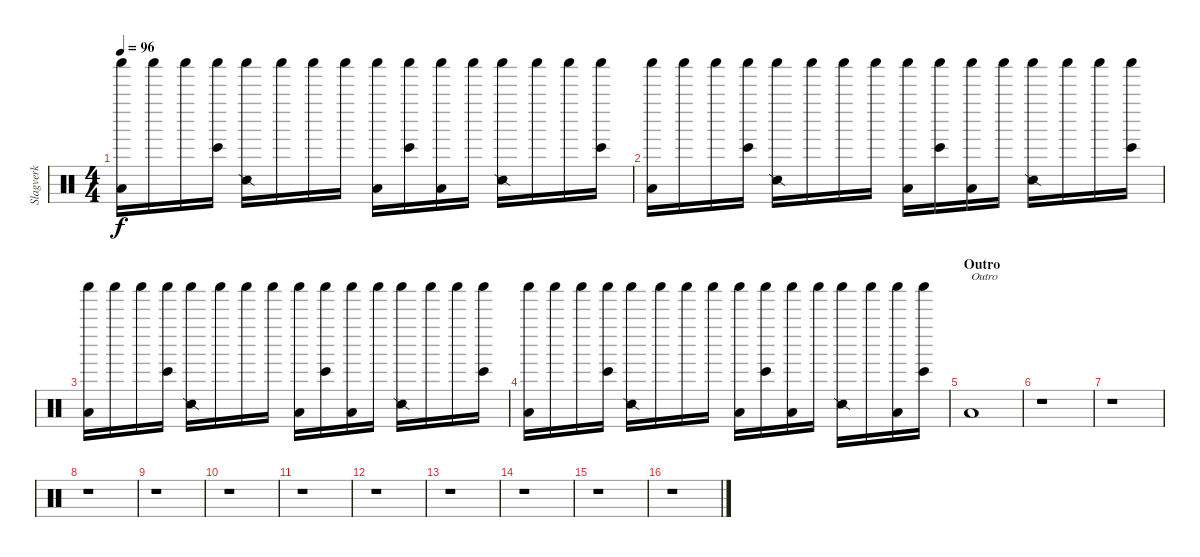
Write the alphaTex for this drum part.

\track ("Slagverk" "Slagverk") {instrument percussion}
\staff {score}
\articulation defaults
\ts (4 4)
\tempo 96
\clef neutral
\ks c
("Shaker (hit)" "Low Floor Tom (hit)").16{dy f} "Shaker (hit)".16 "Shaker (hit)".16 ("Shaker (hit)" "Bongo High (hit)").16 ("Shaker (hit)" "Snare (side stick) 2").16 "Shaker (hit)".16 "Shaker (hit)".16 "Shaker (hit)".16 ("Shaker (hit)" "Low Floor Tom (hit)").16 ("Shaker (hit)" "Bongo High (hit)").16 ("Shaker (hit)" "Low Floor Tom (hit)").16 "Shaker (hit)".16 ("Shaker (hit)" "Snare (side stick) 2").16 "Shaker (hit)".16 "Shaker (hit)".16 ("Shaker (hit)" "Bongo High (hit)").16 |
("Shaker (hit)" "Low Floor Tom (hit)").16 "Shaker (hit)".16 "Shaker (hit)".16 ("Shaker (hit)" "Bongo High (hit)").16 ("Shaker (hit)" "Snare (side stick) 2").16 "Shaker (hit)".16 "Shaker (hit)".16 "Shaker (hit)".16 ("Shaker (hit)" "Low Floor Tom (hit)").16 ("Shaker (hit)" "Bongo High (hit)").16 ("Shaker (hit)" "Low Floor Tom (hit)").16 "Shaker (hit)".16 ("Shaker (hit)" "Snare (side stick) 2").16 "Shaker (hit)".16 "Shaker (hit)".16 ("Shaker (hit)" "Bongo High (hit)").16 |
("Shaker (hit)" "Low Floor Tom (hit)").16 "Shaker (hit)".16 "Shaker (hit)".16 ("Shaker (hit)" "Bongo High (hit)").16 ("Shaker (hit)" "Snare (side stick) 2").16 "Shaker (hit)".16 "Shaker (hit)".16 "Shaker (hit)".16 ("Shaker (hit)" "Low Floor Tom (hit)").16 ("Shaker (hit)" "Bongo High (hit)").16 ("Shaker (hit)" "Low Floor Tom (hit)").16 "Shaker (hit)".16 ("Shaker (hit)" "Snare (side stick) 2").16 "Shaker (hit)".16 "Shaker (hit)".16 ("Shaker (hit)" "Bongo High (hit)").16 |
("Shaker (hit)" "Low Floor Tom (hit)").16 "Shaker (hit)".16 "Shaker (hit)".16 ("Shaker (hit)" "Bongo High (hit)").16 ("Shaker (hit)" "Snare (side stick) 2").16 "Shaker (hit)".16 "Shaker (hit)".16 "Shaker (hit)".16 ("Shaker (hit)" "Low Floor Tom (hit)").16 ("Shaker (hit)" "Bongo High (hit)").16 ("Shaker (hit)" "Low Floor Tom (hit)").16 "Shaker (hit)".16 ("Shaker (hit)" "Snare (side stick) 2").16 "Shaker (hit)".16 ("Shaker (hit)" "Low Floor Tom (hit)").16 ("Shaker (hit)" "Bongo High (hit)").16 |
\section ("" "Outro")
"Low Floor Tom (hit)".1{txt "Outro"} |
r.1 |
r.1 |
r.1 |
r.1 |
r.1 |
r.1 |
r.1 |
r.1 |
r.1 |
r.1 |
r.1
